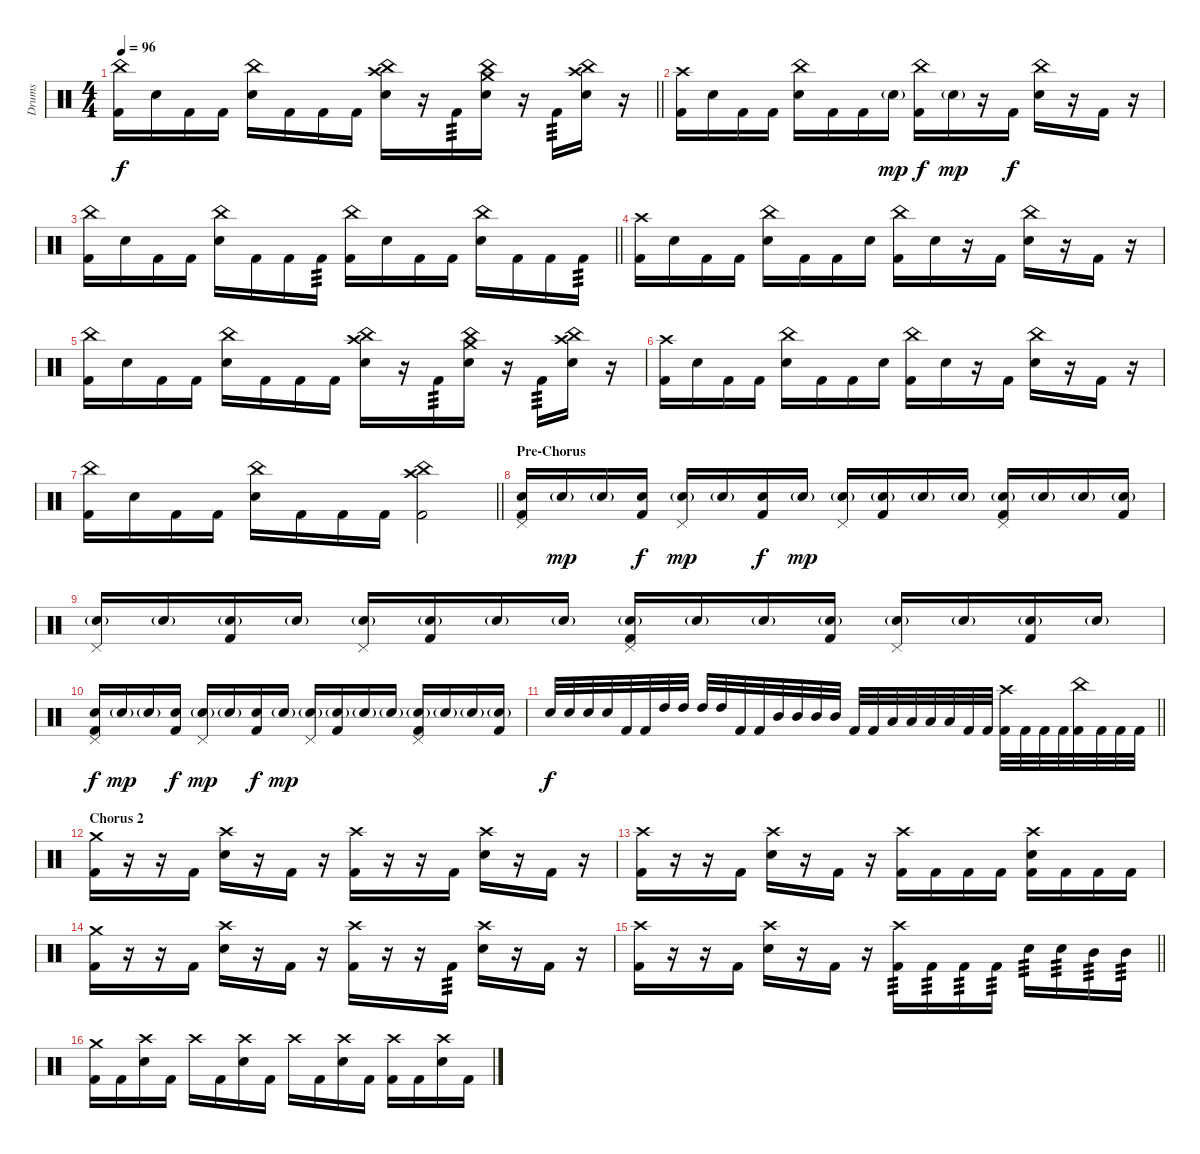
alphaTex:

\track ("Drums" "Drums") {instrument percussion}
\staff {score}
\articulation defaults
\ts (4 4)
\tempo 96
\clef neutral
\barLineRight lightlight
\ks c
("China (hit)" "Kick (hit) 2").16{dy f} "Snare (hit) 2".16 "Kick (hit) 2".16 "Kick (hit) 2".16 ("China (hit)" "Snare (hit) 2").16 "Kick (hit) 2".16 "Kick (hit) 2".16 "Kick (hit) 2".16 ("China (hit)" "Crash high (hit)" "Snare (hit) 2").16 r.16 "Kick (hit) 2".16{tp 3} ("China (hit)" "Crash medium (hit)" "Snare (hit) 2").16 r.16 "Kick (hit) 2".16{tp 3} ("China (hit)" "Crash high (hit)" "Snare (hit) 2").16 r.16 |
("Crash high (hit)" "Kick (hit) 2").16 "Snare (hit) 2".16 "Kick (hit) 2".16 "Kick (hit) 2".16 ("China (hit)" "Snare (hit) 2").16 "Kick (hit) 2".16 "Kick (hit) 2".16 "Snare (hit) 2"{g}.16{dy mp} ("China (hit)" "Kick (hit) 2").16{dy f} "Snare (hit) 2"{g}.16{dy mp} r.16 "Kick (hit) 2".16{dy f} ("China (hit)" "Snare (hit) 2").16 r.16 "Kick (hit) 2".16 r.16 |
\barLineRight lightlight
("China (hit)" "Kick (hit) 2").16 "Snare (hit) 2".16 "Kick (hit) 2".16 "Kick (hit) 2".16 ("China (hit)" "Snare (hit) 2").16 "Kick (hit) 2".16 "Kick (hit) 2".16 "Kick (hit) 2".16{tp 3} ("China (hit)" "Kick (hit) 2").16 "Snare (hit) 2".16 "Kick (hit) 2".16 "Kick (hit) 2".16 ("China (hit)" "Snare (hit) 2").16 "Kick (hit) 2".16 "Kick (hit) 2".16 "Kick (hit) 2".16{tp 3} |
("Crash high (hit)" "Kick (hit) 2").16 "Snare (hit) 2".16 "Kick (hit) 2".16 "Kick (hit) 2".16 ("China (hit)" "Snare (hit) 2").16 "Kick (hit) 2".16 "Kick (hit) 2".16 "Snare (hit) 2".16 ("China (hit)" "Kick (hit) 2").16 "Snare (hit) 2".16 r.16 "Kick (hit) 2".16 ("China (hit)" "Snare (hit) 2").16 r.16 "Kick (hit) 2".16 r.16 |
("China (hit)" "Kick (hit) 2").16 "Snare (hit) 2".16 "Kick (hit) 2".16 "Kick (hit) 2".16 ("China (hit)" "Snare (hit) 2").16 "Kick (hit) 2".16 "Kick (hit) 2".16 "Kick (hit) 2".16 ("China (hit)" "Crash high (hit)" "Snare (hit) 2").16 r.16 "Kick (hit) 2".16{tp 3} ("China (hit)" "Crash medium (hit)" "Snare (hit) 2").16 r.16 "Kick (hit) 2".16{tp 3} ("China (hit)" "Crash high (hit)" "Snare (hit) 2").16 r.16 |
("Crash high (hit)" "Kick (hit) 2").16 "Snare (hit) 2".16 "Kick (hit) 2".16 "Kick (hit) 2".16 ("China (hit)" "Snare (hit) 2").16 "Kick (hit) 2".16 "Kick (hit) 2".16 "Snare (hit) 2".16 ("China (hit)" "Kick (hit) 2").16 "Snare (hit) 2".16 r.16 "Kick (hit) 2".16 ("China (hit)" "Snare (hit) 2").16 r.16 "Kick (hit) 2".16 r.16 |
\barLineRight lightlight
("China (hit)" "Kick (hit) 2").16 "Snare (hit) 2".16 "Kick (hit) 2".16 "Kick (hit) 2".16 ("China (hit)" "Snare (hit) 2").16 "Kick (hit) 2".16 "Kick (hit) 2".16 "Kick (hit) 2".16 ("China (hit)" "Crash high (hit)" "Kick (hit) 2").2 |
\section ("" "Pre-Chorus")
("Pedal Hi-Hat (hit)" "Snare (hit) 2" "Kick (hit) 2").16 "Snare (hit) 2"{g}.16{dy mp} "Snare (hit) 2"{g}.16 ("Snare (hit) 2" "Kick (hit) 2").16{dy f} ("Pedal Hi-Hat (hit)" "Snare (hit) 2"{g}).16{dy mp} "Snare (hit) 2"{g}.16 ("Snare (hit) 2" "Kick (hit) 2").16{dy f} "Snare (hit) 2"{g}.16{dy mp} ("Pedal Hi-Hat (hit)" "Snare (hit) 2"{g}).16 ("Snare (hit) 2"{g} "Kick (hit) 2").16 "Snare (hit) 2"{g}.16 "Snare (hit) 2"{g}.16 ("Pedal Hi-Hat (hit)" "Snare (hit) 2"{g} "Kick (hit) 2").16 "Snare (hit) 2"{g}.16 "Snare (hit) 2"{g}.16 ("Snare (hit) 2"{g} "Kick (hit) 2").16 |
("Pedal Hi-Hat (hit)" "Snare (hit) 2"{g}).16 "Snare (hit) 2"{g}.16 ("Snare (hit) 2"{g} "Kick (hit) 2").16 "Snare (hit) 2"{g}.16 ("Pedal Hi-Hat (hit)" "Snare (hit) 2"{g}).16 ("Snare (hit) 2"{g} "Kick (hit) 2").16 "Snare (hit) 2"{g}.16 "Snare (hit) 2"{g}.16 ("Pedal Hi-Hat (hit)" "Snare (hit) 2"{g} "Kick (hit) 2").16 "Snare (hit) 2"{g}.16 "Snare (hit) 2"{g}.16 ("Snare (hit) 2"{g} "Kick (hit) 2").16 ("Pedal Hi-Hat (hit)" "Snare (hit) 2"{g}).16 "Snare (hit) 2"{g}.16 ("Snare (hit) 2"{g} "Kick (hit) 2").16 "Snare (hit) 2"{g}.16 |
("Pedal Hi-Hat (hit)" "Snare (hit) 2" "Kick (hit) 2").16{dy f} "Snare (hit) 2"{g}.16{dy mp} "Snare (hit) 2"{g}.16 ("Snare (hit) 2" "Kick (hit) 2").16{dy f} ("Pedal Hi-Hat (hit)" "Snare (hit) 2"{g}).16{dy mp} "Snare (hit) 2"{g}.16 ("Snare (hit) 2" "Kick (hit) 2").16{dy f} "Snare (hit) 2"{g}.16{dy mp} ("Pedal Hi-Hat (hit)" "Snare (hit) 2"{g}).16 ("Snare (hit) 2"{g} "Kick (hit) 2").16 "Snare (hit) 2"{g}.16 "Snare (hit) 2"{g}.16 ("Pedal Hi-Hat (hit)" "Snare (hit) 2"{g} "Kick (hit) 2").16 "Snare (hit) 2"{g}.16 "Snare (hit) 2"{g}.16 ("Snare (hit) 2"{g} "Kick (hit) 2").16 |
\barLineRight lightlight "Snare (hit) 2".32{dy f} "Snare (hit) 2".32 "Snare (hit) 2".32 "Snare (hit) 2".32 "Kick (hit) 2".32 "Kick (hit) 2".32 "High Tom (hit)".32 "High Tom (hit)".32 "High Tom (hit)".32 "High Tom (hit)".32 "Kick (hit) 2".32 "Kick (hit) 2".32 "Mid Tom (hit)".32 "Mid Tom (hit)".32 "Mid Tom (hit)".32 "Mid Tom (hit)".32 "Kick (hit) 2".32 "Kick (hit) 2".32 "Low Tom (hit)".32 "Low Tom (hit)".32 "Low Tom (hit)".32 "Low Tom (hit)".32 "Kick (hit) 2".32 "Kick (hit) 2".32
("Crash high (hit)" "Kick (hit) 2").32 "Kick (hit) 2".32 "Kick (hit) 2".32 "Kick (hit) 2".32 ("China (hit)" "Kick (hit) 2").32 "Kick (hit) 2".32 "Kick (hit) 2".32 "Kick (hit) 2".32 |
\section ("" "Chorus 2")
("Crash medium (hit)" "Kick (hit) 2").16 r.16 r.16 "Kick (hit) 2".16 ("Crash high (hit)" "Snare (hit) 2").16 r.16 "Kick (hit) 2".16 r.16 ("Crash high (hit)" "Kick (hit) 2").16 r.16 r.16 "Kick (hit) 2".16 ("Crash high (hit)" "Snare (hit) 2").16 r.16 "Kick (hit) 2".16 r.16 |
("Crash high (hit)" "Kick (hit) 2").16 r.16 r.16 "Kick (hit) 2".16 ("Crash high (hit)" "Snare (hit) 2").16 r.16 "Kick (hit) 2".16 r.16 ("Crash high (hit)" "Kick (hit) 2").16 "Kick (hit) 2".16 "Kick (hit) 2".16 "Kick (hit) 2".16 ("Crash high (hit)" "Snare (hit) 2" "Kick (hit) 2").16 "Kick (hit) 2".16 "Kick (hit) 2".16 "Kick (hit) 2".16 |
("Crash medium (hit)" "Kick (hit) 2").16 r.16 r.16 "Kick (hit) 2".16 ("Crash high (hit)" "Snare (hit) 2").16 r.16 "Kick (hit) 2".16 r.16 ("Crash high (hit)" "Kick (hit) 2").16 r.16 r.16 "Kick (hit) 2".16{tp 3} ("Crash high (hit)" "Snare (hit) 2").16 r.16 "Kick (hit) 2".16 r.16 |
\barLineRight lightlight
("Crash high (hit)" "Kick (hit) 2").16 r.16 r.16 "Kick (hit) 2".16 ("Crash high (hit)" "Snare (hit) 2").16 r.16 "Kick (hit) 2".16 r.16 ("Crash high (hit)" "Kick (hit) 2").16{tp 3} "Kick (hit) 2".16{tp 3} "Kick (hit) 2".16{tp 3} "Kick (hit) 2".16{tp 3} "Snare (hit) 2".16{tp 3} "Snare (hit) 2".16{tp 3} "Mid Tom (hit)".16{tp 3} "Mid Tom (hit)".16{tp 3} |
("Crash medium (hit)" "Kick (hit) 2").16 "Kick (hit) 2".16 ("Crash high (hit)" "Snare (hit) 2").16 "Kick (hit) 2".16 "Crash high (hit)".16 "Kick (hit) 2".16 ("Crash high (hit)" "Snare (hit) 2").16 "Kick (hit) 2".16 "Crash high (hit)".16 "Kick (hit) 2".16 ("Crash high (hit)" "Snare (hit) 2").16 "Kick (hit) 2".16 ("Crash high (hit)" "Kick (hit) 2").16 "Kick (hit) 2".16 ("Crash high (hit)" "Snare (hit) 2").16 "Kick (hit) 2".16
